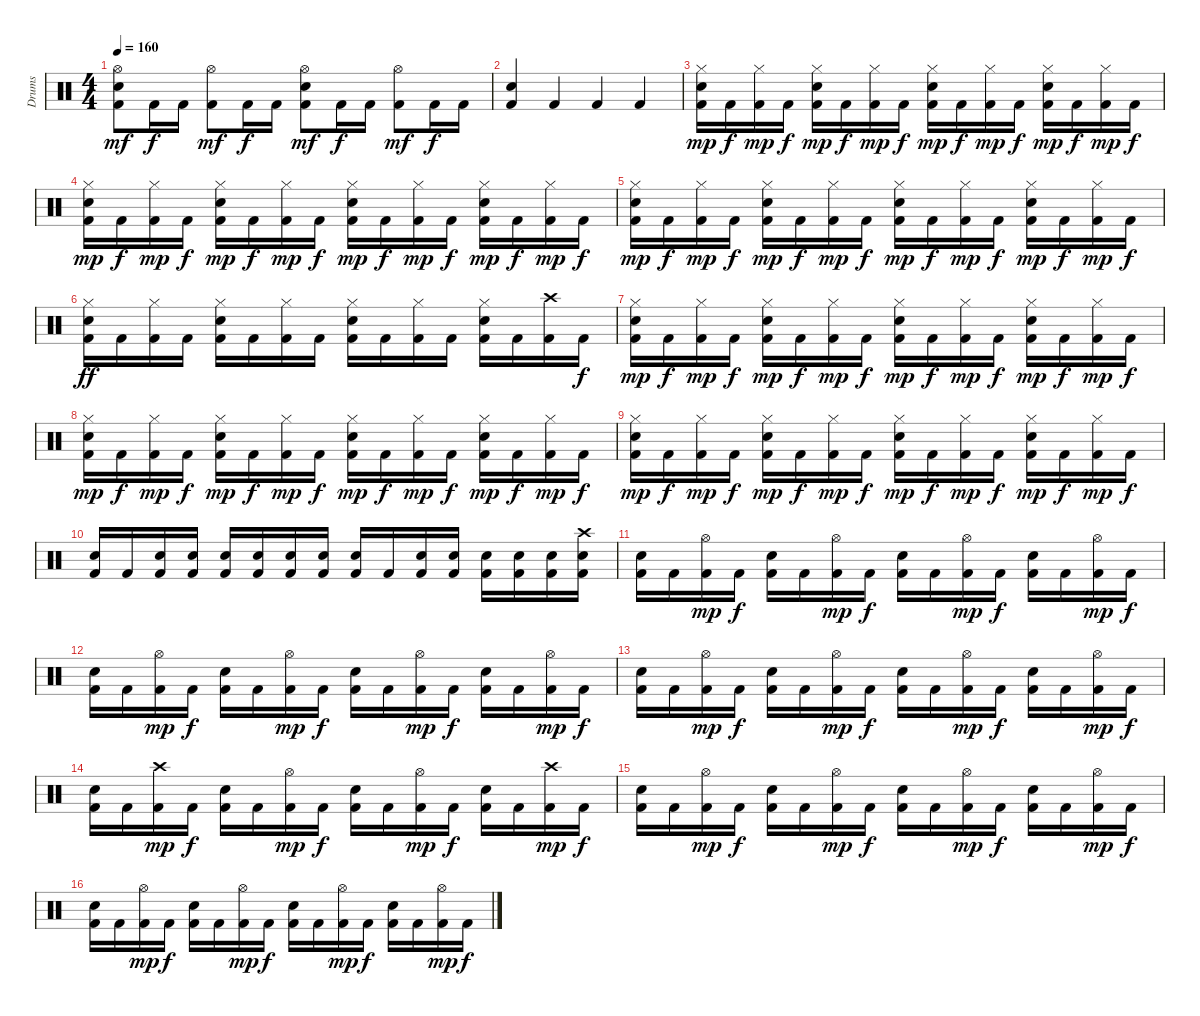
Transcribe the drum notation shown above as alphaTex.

\track ("Drums" "Drums") {instrument percussion}
\staff {score}
\articulation defaults
\ts (4 4)
\tempo 160
\clef neutral
\ks c
("Hi-Hat (open)" "Electric Snare (hit)" "Kick (hit) 2").8{dy mf} "Kick (hit) 2".16{dy f} "Kick (hit) 2".16 ("Hi-Hat (open)" "Kick (hit) 2").8{dy mf} "Kick (hit) 2".16{dy f} "Kick (hit) 2".16 ("Hi-Hat (open)" "Electric Snare (hit)" "Kick (hit) 2").8{dy mf} "Kick (hit) 2".16{dy f} "Kick (hit) 2".16 ("Hi-Hat (open)" "Kick (hit) 2").8{dy mf} "Kick (hit) 2".16{dy f} "Kick (hit) 2".16 |
("Electric Snare (hit)" "Kick (hit) 2").4 "Kick (hit) 2".4 "Kick (hit) 2".4 "Kick (hit) 2".4 |
("Hi-Hat (closed)" "Electric Snare (hit)" "Kick (hit) 2").16{dy mp} "Kick (hit) 2".16{dy f} ("Hi-Hat (closed)" "Kick (hit) 2").16{dy mp} "Kick (hit) 2".16{dy f} ("Hi-Hat (closed)" "Electric Snare (hit)" "Kick (hit) 2").16{dy mp} "Kick (hit) 2".16{dy f} ("Hi-Hat (closed)" "Kick (hit) 2").16{dy mp} "Kick (hit) 2".16{dy f} ("Hi-Hat (closed)" "Electric Snare (hit)" "Kick (hit) 2").16{dy mp} "Kick (hit) 2".16{dy f} ("Hi-Hat (closed)" "Kick (hit) 2").16{dy mp} "Kick (hit) 2".16{dy f} ("Hi-Hat (closed)" "Electric Snare (hit)" "Kick (hit) 2").16{dy mp} "Kick (hit) 2".16{dy f} ("Hi-Hat (closed)" "Kick (hit) 2").16{dy mp} "Kick (hit) 2".16{dy f} |
("Hi-Hat (closed)" "Electric Snare (hit)" "Kick (hit) 2").16{dy mp} "Kick (hit) 2".16{dy f} ("Hi-Hat (closed)" "Kick (hit) 2").16{dy mp} "Kick (hit) 2".16{dy f} ("Hi-Hat (closed)" "Electric Snare (hit)" "Kick (hit) 2").16{dy mp} "Kick (hit) 2".16{dy f} ("Hi-Hat (closed)" "Kick (hit) 2").16{dy mp} "Kick (hit) 2".16{dy f} ("Hi-Hat (closed)" "Electric Snare (hit)" "Kick (hit) 2").16{dy mp} "Kick (hit) 2".16{dy f} ("Hi-Hat (closed)" "Kick (hit) 2").16{dy mp} "Kick (hit) 2".16{dy f} ("Hi-Hat (closed)" "Electric Snare (hit)" "Kick (hit) 2").16{dy mp} "Kick (hit) 2".16{dy f} ("Hi-Hat (closed)" "Kick (hit) 2").16{dy mp} "Kick (hit) 2".16{dy f} |
("Hi-Hat (closed)" "Electric Snare (hit)" "Kick (hit) 2").16{dy mp} "Kick (hit) 2".16{dy f} ("Hi-Hat (closed)" "Kick (hit) 2").16{dy mp} "Kick (hit) 2".16{dy f} ("Hi-Hat (closed)" "Electric Snare (hit)" "Kick (hit) 2").16{dy mp} "Kick (hit) 2".16{dy f} ("Hi-Hat (closed)" "Kick (hit) 2").16{dy mp} "Kick (hit) 2".16{dy f} ("Hi-Hat (closed)" "Electric Snare (hit)" "Kick (hit) 2").16{dy mp} "Kick (hit) 2".16{dy f} ("Hi-Hat (closed)" "Kick (hit) 2").16{dy mp} "Kick (hit) 2".16{dy f} ("Hi-Hat (closed)" "Electric Snare (hit)" "Kick (hit) 2").16{dy mp} "Kick (hit) 2".16{dy f} ("Hi-Hat (closed)" "Kick (hit) 2").16{dy mp} "Kick (hit) 2".16{dy f} |
("Hi-Hat (closed)" "Electric Snare (hit)" "Kick (hit) 2").16{dy ff} "Kick (hit) 2".16 ("Hi-Hat (closed)" "Kick (hit) 2").16 "Kick (hit) 2".16 ("Hi-Hat (closed)" "Electric Snare (hit)" "Kick (hit) 2").16 "Kick (hit) 2".16 ("Hi-Hat (closed)" "Kick (hit) 2").16 "Kick (hit) 2".16 ("Hi-Hat (closed)" "Electric Snare (hit)" "Kick (hit) 2").16 "Kick (hit) 2".16 ("Hi-Hat (closed)" "Kick (hit) 2").16 "Kick (hit) 2".16 ("Hi-Hat (closed)" "Electric Snare (hit)" "Kick (hit) 2").16 "Kick (hit) 2".16 ("Crash high (hit)" "Kick (hit) 2").16 "Kick (hit) 2".16{dy f} |
("Hi-Hat (closed)" "Electric Snare (hit)" "Kick (hit) 2").16{dy mp} "Kick (hit) 2".16{dy f} ("Hi-Hat (closed)" "Kick (hit) 2").16{dy mp} "Kick (hit) 2".16{dy f} ("Hi-Hat (closed)" "Electric Snare (hit)" "Kick (hit) 2").16{dy mp} "Kick (hit) 2".16{dy f} ("Hi-Hat (closed)" "Kick (hit) 2").16{dy mp} "Kick (hit) 2".16{dy f} ("Hi-Hat (closed)" "Electric Snare (hit)" "Kick (hit) 2").16{dy mp} "Kick (hit) 2".16{dy f} ("Hi-Hat (closed)" "Kick (hit) 2").16{dy mp} "Kick (hit) 2".16{dy f} ("Hi-Hat (closed)" "Electric Snare (hit)" "Kick (hit) 2").16{dy mp} "Kick (hit) 2".16{dy f} ("Hi-Hat (closed)" "Kick (hit) 2").16{dy mp} "Kick (hit) 2".16{dy f} |
("Hi-Hat (closed)" "Electric Snare (hit)" "Kick (hit) 2").16{dy mp} "Kick (hit) 2".16{dy f} ("Hi-Hat (closed)" "Kick (hit) 2").16{dy mp} "Kick (hit) 2".16{dy f} ("Hi-Hat (closed)" "Electric Snare (hit)" "Kick (hit) 2").16{dy mp} "Kick (hit) 2".16{dy f} ("Hi-Hat (closed)" "Kick (hit) 2").16{dy mp} "Kick (hit) 2".16{dy f} ("Hi-Hat (closed)" "Electric Snare (hit)" "Kick (hit) 2").16{dy mp} "Kick (hit) 2".16{dy f} ("Hi-Hat (closed)" "Kick (hit) 2").16{dy mp} "Kick (hit) 2".16{dy f} ("Hi-Hat (closed)" "Electric Snare (hit)" "Kick (hit) 2").16{dy mp} "Kick (hit) 2".16{dy f} ("Hi-Hat (closed)" "Kick (hit) 2").16{dy mp} "Kick (hit) 2".16{dy f} |
("Hi-Hat (closed)" "Electric Snare (hit)" "Kick (hit) 2").16{dy mp} "Kick (hit) 2".16{dy f} ("Hi-Hat (closed)" "Kick (hit) 2").16{dy mp} "Kick (hit) 2".16{dy f} ("Hi-Hat (closed)" "Electric Snare (hit)" "Kick (hit) 2").16{dy mp} "Kick (hit) 2".16{dy f} ("Hi-Hat (closed)" "Kick (hit) 2").16{dy mp} "Kick (hit) 2".16{dy f} ("Hi-Hat (closed)" "Electric Snare (hit)" "Kick (hit) 2").16{dy mp} "Kick (hit) 2".16{dy f} ("Hi-Hat (closed)" "Kick (hit) 2").16{dy mp} "Kick (hit) 2".16{dy f} ("Hi-Hat (closed)" "Electric Snare (hit)" "Kick (hit) 2").16{dy mp} "Kick (hit) 2".16{dy f} ("Hi-Hat (closed)" "Kick (hit) 2").16{dy mp} "Kick (hit) 2".16{dy f} |
("Electric Snare (hit)" "Kick (hit) 2").16 "Kick (hit) 2".16 ("Electric Snare (hit)" "Kick (hit) 2").16 ("Electric Snare (hit)" "Kick (hit) 2").16 ("Electric Snare (hit)" "Kick (hit) 2").16 ("Electric Snare (hit)" "Kick (hit) 2").16 ("Electric Snare (hit)" "Kick (hit) 2").16 ("Electric Snare (hit)" "Kick (hit) 2").16 ("Electric Snare (hit)" "Kick (hit) 2").16 "Kick (hit) 2".16 ("Electric Snare (hit)" "Kick (hit) 2").16 ("Electric Snare (hit)" "Kick (hit) 2").16 ("Electric Snare (hit)" "Kick (hit) 2").16 ("Electric Snare (hit)" "Kick (hit) 2").16 ("Electric Snare (hit)" "Kick (hit) 2").16 ("Crash high (hit)" "Electric Snare (hit)" "Kick (hit) 2").16 |
("Electric Snare (hit)" "Kick (hit) 2").16 "Kick (hit) 2".16 ("Hi-Hat (open)" "Kick (hit) 2").16{dy mp} "Kick (hit) 2".16{dy f} ("Electric Snare (hit)" "Kick (hit) 2").16 "Kick (hit) 2".16 ("Hi-Hat (open)" "Kick (hit) 2").16{dy mp} "Kick (hit) 2".16{dy f} ("Electric Snare (hit)" "Kick (hit) 2").16 "Kick (hit) 2".16 ("Hi-Hat (open)" "Kick (hit) 2").16{dy mp} "Kick (hit) 2".16{dy f} ("Electric Snare (hit)" "Kick (hit) 2").16 "Kick (hit) 2".16 ("Hi-Hat (open)" "Kick (hit) 2").16{dy mp} "Kick (hit) 2".16{dy f} |
("Electric Snare (hit)" "Kick (hit) 2").16 "Kick (hit) 2".16 ("Hi-Hat (open)" "Kick (hit) 2").16{dy mp} "Kick (hit) 2".16{dy f} ("Electric Snare (hit)" "Kick (hit) 2").16 "Kick (hit) 2".16 ("Hi-Hat (open)" "Kick (hit) 2").16{dy mp} "Kick (hit) 2".16{dy f} ("Electric Snare (hit)" "Kick (hit) 2").16 "Kick (hit) 2".16 ("Hi-Hat (open)" "Kick (hit) 2").16{dy mp} "Kick (hit) 2".16{dy f} ("Electric Snare (hit)" "Kick (hit) 2").16 "Kick (hit) 2".16 ("Hi-Hat (open)" "Kick (hit) 2").16{dy mp} "Kick (hit) 2".16{dy f} |
("Electric Snare (hit)" "Kick (hit) 2").16 "Kick (hit) 2".16 ("Hi-Hat (open)" "Kick (hit) 2").16{dy mp} "Kick (hit) 2".16{dy f} ("Electric Snare (hit)" "Kick (hit) 2").16 "Kick (hit) 2".16 ("Hi-Hat (open)" "Kick (hit) 2").16{dy mp} "Kick (hit) 2".16{dy f} ("Electric Snare (hit)" "Kick (hit) 2").16 "Kick (hit) 2".16 ("Hi-Hat (open)" "Kick (hit) 2").16{dy mp} "Kick (hit) 2".16{dy f} ("Electric Snare (hit)" "Kick (hit) 2").16 "Kick (hit) 2".16 ("Hi-Hat (open)" "Kick (hit) 2").16{dy mp} "Kick (hit) 2".16{dy f} |
("Electric Snare (hit)" "Kick (hit) 2").16 "Kick (hit) 2".16 ("Crash high (hit)" "Kick (hit) 2").16{dy mp} "Kick (hit) 2".16{dy f} ("Electric Snare (hit)" "Kick (hit) 2").16 "Kick (hit) 2".16 ("Hi-Hat (open)" "Kick (hit) 2").16{dy mp} "Kick (hit) 2".16{dy f} ("Electric Snare (hit)" "Kick (hit) 2").16 "Kick (hit) 2".16 ("Hi-Hat (open)" "Kick (hit) 2").16{dy mp} "Kick (hit) 2".16{dy f} ("Electric Snare (hit)" "Kick (hit) 2").16 "Kick (hit) 2".16 ("Crash high (hit)" "Kick (hit) 2").16{dy mp} "Kick (hit) 2".16{dy f} |
("Electric Snare (hit)" "Kick (hit) 2").16 "Kick (hit) 2".16 ("Hi-Hat (open)" "Kick (hit) 2").16{dy mp} "Kick (hit) 2".16{dy f} ("Electric Snare (hit)" "Kick (hit) 2").16 "Kick (hit) 2".16 ("Hi-Hat (open)" "Kick (hit) 2").16{dy mp} "Kick (hit) 2".16{dy f} ("Electric Snare (hit)" "Kick (hit) 2").16 "Kick (hit) 2".16 ("Hi-Hat (open)" "Kick (hit) 2").16{dy mp} "Kick (hit) 2".16{dy f} ("Electric Snare (hit)" "Kick (hit) 2").16 "Kick (hit) 2".16 ("Hi-Hat (open)" "Kick (hit) 2").16{dy mp} "Kick (hit) 2".16{dy f} |
("Electric Snare (hit)" "Kick (hit) 2").16 "Kick (hit) 2".16 ("Hi-Hat (open)" "Kick (hit) 2").16{dy mp} "Kick (hit) 2".16{dy f} ("Electric Snare (hit)" "Kick (hit) 2").16 "Kick (hit) 2".16 ("Hi-Hat (open)" "Kick (hit) 2").16{dy mp} "Kick (hit) 2".16{dy f} ("Electric Snare (hit)" "Kick (hit) 2").16 "Kick (hit) 2".16 ("Hi-Hat (open)" "Kick (hit) 2").16{dy mp} "Kick (hit) 2".16{dy f} ("Electric Snare (hit)" "Kick (hit) 2").16 "Kick (hit) 2".16 ("Hi-Hat (open)" "Kick (hit) 2").16{dy mp} "Kick (hit) 2".16{dy f}
